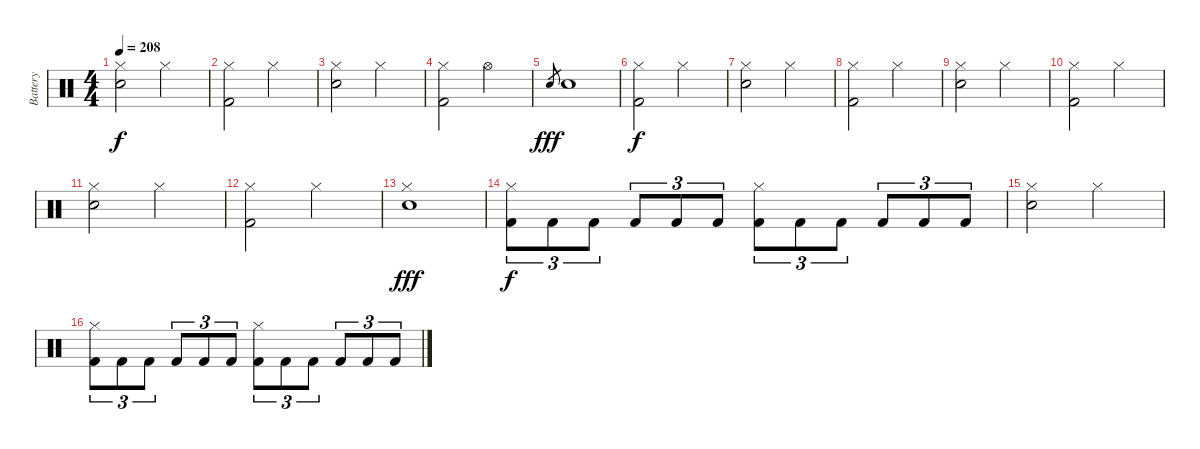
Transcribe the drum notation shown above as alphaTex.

\track ("Battery" "Battery") {instrument percussion}
\staff {score}
\articulation defaults
\ts (4 4)
\tempo 208
\clef neutral
\ks c
("Hi-Hat (closed)" "Electric Snare (hit)").2{dy f} "Hi-Hat (closed)".2 |
("Hi-Hat (closed)" "Kick (hit) 2").2 "Hi-Hat (closed)".2 |
("Hi-Hat (closed)" "Electric Snare (hit)").2 "Hi-Hat (closed)".2 |
("Hi-Hat (closed)" "Kick (hit) 2").2 "Hi-Hat (open)".2 |
"Electric Snare (hit)".8{gr dy fff} "Electric Snare (hit)".1 |
("Hi-Hat (closed)" "Kick (hit) 2").2{dy f} "Hi-Hat (closed)".2 |
("Hi-Hat (closed)" "Electric Snare (hit)").2 "Hi-Hat (closed)".2 |
("Hi-Hat (closed)" "Kick (hit) 2").2 "Hi-Hat (closed)".2 |
("Hi-Hat (closed)" "Electric Snare (hit)").2 "Hi-Hat (closed)".2 |
("Hi-Hat (closed)" "Kick (hit) 2").2 "Hi-Hat (closed)".2 |
("Hi-Hat (closed)" "Electric Snare (hit)").2 "Hi-Hat (closed)".2 |
("Hi-Hat (closed)" "Kick (hit) 2").2 "Hi-Hat (closed)".2 |
("Hi-Hat (closed)" "Electric Snare (hit)").1{dy fff} |
("Hi-Hat (closed)" "Kick (hit) 2").8{tu (3 2) dy f} "Kick (hit) 2".8{tu (3 2)} "Kick (hit) 2".8{tu (3 2)} "Kick (hit) 2".8{tu (3 2)} "Kick (hit) 2".8{tu (3 2)} "Kick (hit) 2".8{tu (3 2)} ("Hi-Hat (closed)" "Kick (hit) 2").8{tu (3 2)} "Kick (hit) 2".8{tu (3 2)} "Kick (hit) 2".8{tu (3 2)} "Kick (hit) 2".8{tu (3 2)} "Kick (hit) 2".8{tu (3 2)} "Kick (hit) 2".8{tu (3 2)} |
("Hi-Hat (closed)" "Electric Snare (hit)").2 "Hi-Hat (closed)".2 |
("Hi-Hat (closed)" "Kick (hit) 2").8{tu (3 2)} "Kick (hit) 2".8{tu (3 2)} "Kick (hit) 2".8{tu (3 2)} "Kick (hit) 2".8{tu (3 2)} "Kick (hit) 2".8{tu (3 2)} "Kick (hit) 2".8{tu (3 2)} ("Hi-Hat (closed)" "Kick (hit) 2").8{tu (3 2)} "Kick (hit) 2".8{tu (3 2)} "Kick (hit) 2".8{tu (3 2)} "Kick (hit) 2".8{tu (3 2)} "Kick (hit) 2".8{tu (3 2)} "Kick (hit) 2".8{tu (3 2)}
